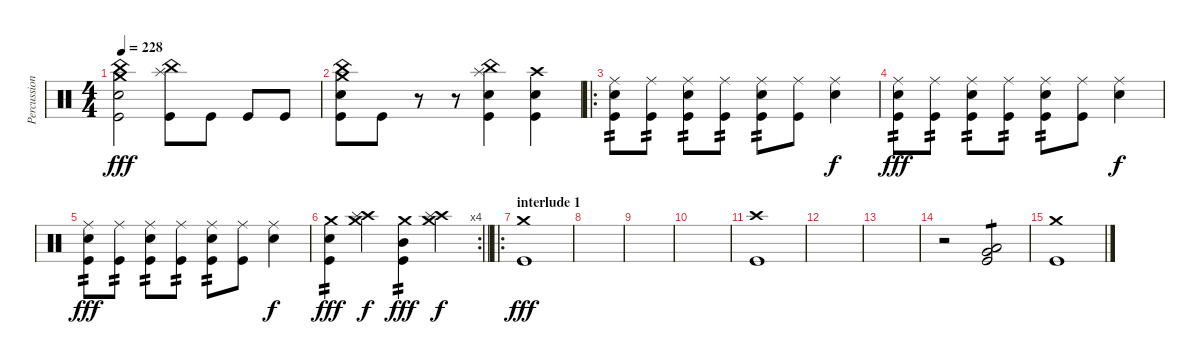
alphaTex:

\track ("Percussion" "Percussion") {instrument percussion}
\staff {score}
\articulation defaults
\ts (4 4)
\tempo 228
\clef neutral
\ks c
("China (hit)" "Crash medium (hit)" "Electric Snare (hit)" "Kick (hit)").2{dy fff} ("China (hit)" "Splash (hit)" "Kick (hit)").8 "Kick (hit)".8 "Kick (hit)".8 "Kick (hit)".8 |
("China (hit)" "Crash medium (hit)" "Electric Snare (hit)" "Kick (hit)").8 "Kick (hit)".8 r.8 r.8 ("China (hit)" "Splash (hit)" "Electric Snare (hit)" "Kick (hit)").4 ("Crash high (hit)" "Electric Snare (hit)" "Kick (hit)").4 |
\ro
("Ride (middle)" "Snare (hit) 2" "Kick (hit)").8{tp 2} ("Ride (middle)" "Kick (hit)").8{tp 2} ("Ride (middle)" "Snare (hit) 2" "Kick (hit)").8{tp 2} ("Ride (middle)" "Kick (hit)").8{tp 2} ("Ride (middle)" "Snare (hit) 2" "Kick (hit)").8{tp 2} ("Ride (middle)" "Kick (hit)").8 ("Ride (middle)" "Snare (hit) 2").4{dy f} |
("Ride (middle)" "Snare (hit) 2" "Kick (hit)").8{tp 2 dy fff} ("Ride (middle)" "Kick (hit)").8{tp 2} ("Ride (middle)" "Snare (hit) 2" "Kick (hit)").8{tp 2} ("Ride (middle)" "Kick (hit)").8{tp 2} ("Ride (middle)" "Snare (hit) 2" "Kick (hit)").8{tp 2} ("Ride (middle)" "Kick (hit)").8 ("Ride (middle)" "Snare (hit) 2").4{dy f} |
("Ride (middle)" "Snare (hit) 2" "Kick (hit)").8{tp 2 dy fff} ("Ride (middle)" "Kick (hit)").8{tp 2} ("Ride (middle)" "Snare (hit) 2" "Kick (hit)").8{tp 2} ("Ride (middle)" "Kick (hit)").8{tp 2} ("Ride (middle)" "Snare (hit) 2" "Kick (hit)").8{tp 2} ("Ride (middle)" "Kick (hit)").8 ("Ride (middle)" "Snare (hit) 2").4{dy f} |
\rc 4
\barLineRight lightlight
("Crash medium (hit)" "Electric Snare (hit)" "Kick (hit)").4{tp 2 dy fff} ("Crash high (hit)" "Crash medium (hit)" "Splash (hit)").4{dy f} ("Crash medium (hit)" "Mid Tom (hit)" "Kick (hit)").4{tp 2 dy fff} ("Crash high (hit)" "Crash medium (hit)" "Splash (hit)").4{dy f} |
\ro
\section ("" "interlude 1")
("Crash medium (hit)" "Kick (hit)").1{dy fff} |
|
|
|
("Crash high (hit)" "Kick (hit)").1 |
|
|
r.2 ("Very Low Tom (hit)" "Low Floor Tom (hit)" "Kick (hit)").2{tp 1} |
("Crash medium (hit)" "Kick (hit)").1
